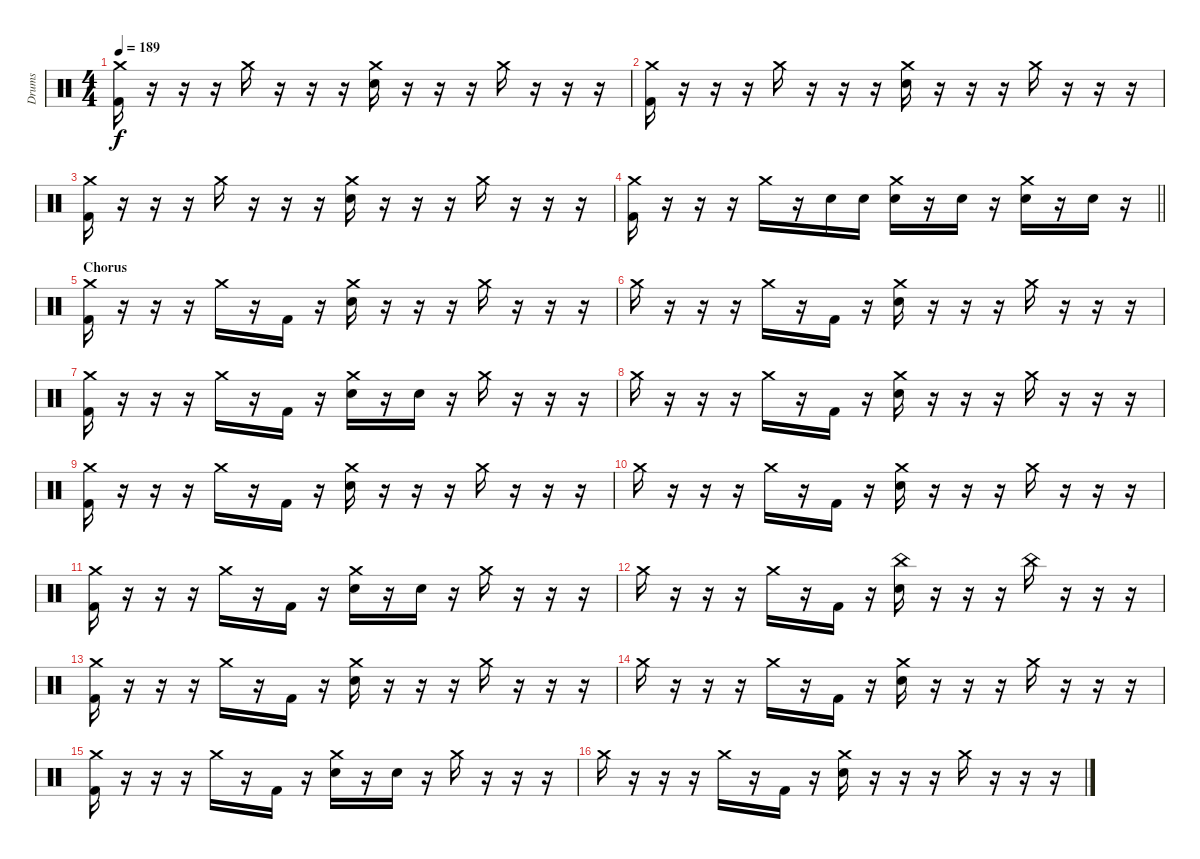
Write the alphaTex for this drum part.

\track ("Drums" "Drums") {instrument percussion}
\staff {score}
\articulation defaults
\ts (4 4)
\tempo 189
\clef neutral
\ks c
("Crash medium (hit)" "Kick (hit) 2").16{dy f} r.16 r.16 r.16 "Crash medium (hit)".16 r.16 r.16 r.16 ("Crash medium (hit)" "Snare (hit) 2").16 r.16 r.16 r.16 "Crash medium (hit)".16 r.16 r.16 r.16 |
("Crash medium (hit)" "Kick (hit) 2").16 r.16 r.16 r.16 "Crash medium (hit)".16 r.16 r.16 r.16 ("Crash medium (hit)" "Snare (hit) 2").16 r.16 r.16 r.16 "Crash medium (hit)".16 r.16 r.16 r.16 |
("Crash medium (hit)" "Kick (hit) 2").16 r.16 r.16 r.16 "Crash medium (hit)".16 r.16 r.16 r.16 ("Crash medium (hit)" "Snare (hit) 2").16 r.16 r.16 r.16 "Crash medium (hit)".16 r.16 r.16 r.16 |
\barLineRight lightlight
("Crash medium (hit)" "Kick (hit) 2").16 r.16 r.16 r.16 "Crash medium (hit)".16 r.16 "Snare (hit) 2".16 "Snare (hit) 2".16 ("Crash medium (hit)" "Snare (hit) 2").16 r.16 "Snare (hit) 2".16 r.16 ("Crash medium (hit)" "Snare (hit) 2").16 r.16 "Snare (hit) 2".16 r.16 |
\section ("" "Chorus")
("Crash medium (hit)" "Kick (hit) 2").16 r.16 r.16 r.16 "Crash medium (hit)".16 r.16 "Kick (hit) 2".16 r.16 ("Crash medium (hit)" "Electric Snare (hit)").16 r.16 r.16 r.16 "Crash medium (hit)".16 r.16 r.16 r.16 |
"Crash medium (hit)".16 r.16 r.16 r.16 "Crash medium (hit)".16 r.16 "Kick (hit) 2".16 r.16 ("Crash medium (hit)" "Electric Snare (hit)").16 r.16 r.16 r.16 "Crash medium (hit)".16 r.16 r.16 r.16 |
("Crash medium (hit)" "Kick (hit) 2").16 r.16 r.16 r.16 "Crash medium (hit)".16 r.16 "Kick (hit) 2".16 r.16 ("Crash medium (hit)" "Electric Snare (hit)").16 r.16 "Electric Snare (hit)".16 r.16 "Crash medium (hit)".16 r.16 r.16 r.16 |
"Crash medium (hit)".16 r.16 r.16 r.16 "Crash medium (hit)".16 r.16 "Kick (hit) 2".16 r.16 ("Crash medium (hit)" "Electric Snare (hit)").16 r.16 r.16 r.16 "Crash medium (hit)".16 r.16 r.16 r.16 |
("Crash medium (hit)" "Kick (hit) 2").16 r.16 r.16 r.16 "Crash medium (hit)".16 r.16 "Kick (hit) 2".16 r.16 ("Crash medium (hit)" "Electric Snare (hit)").16 r.16 r.16 r.16 "Crash medium (hit)".16 r.16 r.16 r.16 |
"Crash medium (hit)".16 r.16 r.16 r.16 "Crash medium (hit)".16 r.16 "Kick (hit) 2".16 r.16 ("Crash medium (hit)" "Electric Snare (hit)").16 r.16 r.16 r.16 "Crash medium (hit)".16 r.16 r.16 r.16 |
("Crash medium (hit)" "Kick (hit) 2").16 r.16 r.16 r.16 "Crash medium (hit)".16 r.16 "Kick (hit) 2".16 r.16 ("Crash medium (hit)" "Electric Snare (hit)").16 r.16 "Electric Snare (hit)".16 r.16 "Crash medium (hit)".16 r.16 r.16 r.16 |
"Crash medium (hit)".16 r.16 r.16 r.16 "Crash medium (hit)".16 r.16 "Kick (hit) 2".16 r.16 ("China (hit)" "Electric Snare (hit)").16 r.16 r.16 r.16 "China (hit)".16 r.16 r.16 r.16 |
("Crash medium (hit)" "Kick (hit) 2").16 r.16 r.16 r.16 "Crash medium (hit)".16 r.16 "Kick (hit) 2".16 r.16 ("Crash medium (hit)" "Electric Snare (hit)").16 r.16 r.16 r.16 "Crash medium (hit)".16 r.16 r.16 r.16 |
"Crash medium (hit)".16 r.16 r.16 r.16 "Crash medium (hit)".16 r.16 "Kick (hit) 2".16 r.16 ("Crash medium (hit)" "Electric Snare (hit)").16 r.16 r.16 r.16 "Crash medium (hit)".16 r.16 r.16 r.16 |
("Crash medium (hit)" "Kick (hit) 2").16 r.16 r.16 r.16 "Crash medium (hit)".16 r.16 "Kick (hit) 2".16 r.16 ("Crash medium (hit)" "Electric Snare (hit)").16 r.16 "Electric Snare (hit)".16 r.16 "Crash medium (hit)".16 r.16 r.16 r.16 |
"Crash medium (hit)".16 r.16 r.16 r.16 "Crash medium (hit)".16 r.16 "Kick (hit) 2".16 r.16 ("Crash medium (hit)" "Electric Snare (hit)").16 r.16 r.16 r.16 "Crash medium (hit)".16 r.16 r.16 r.16
